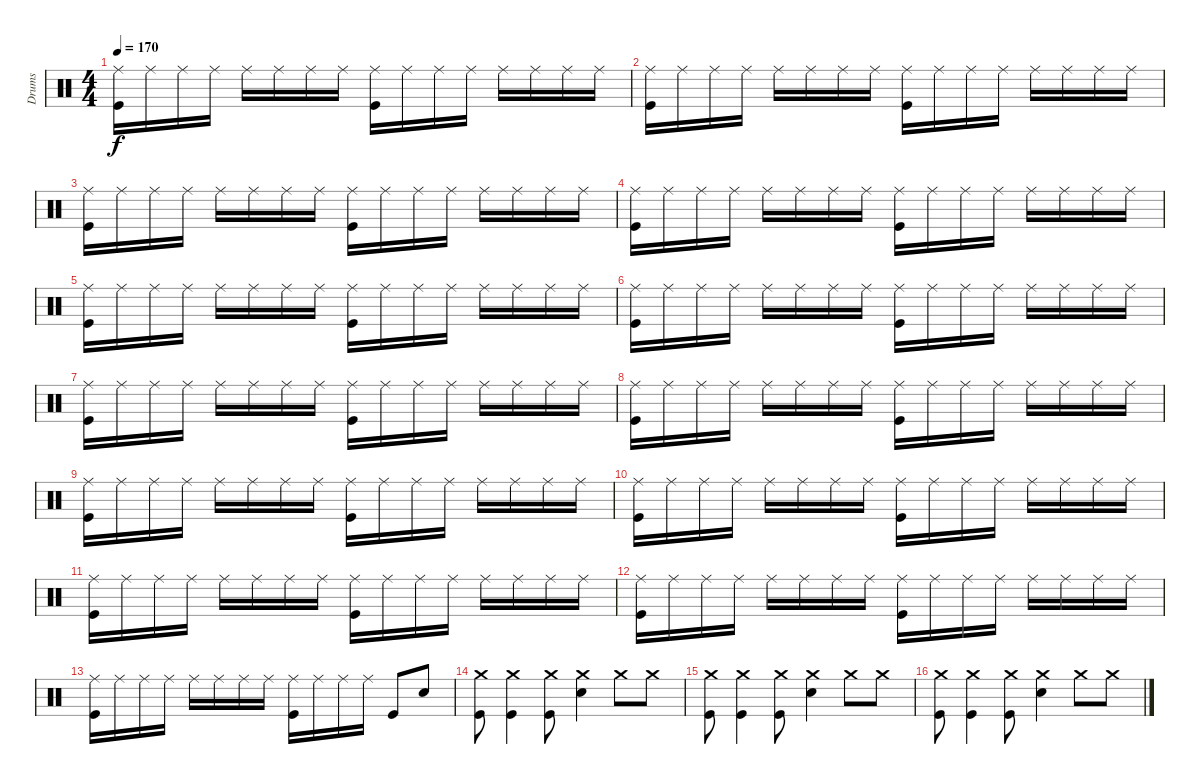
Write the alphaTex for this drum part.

\track ("Drums" "Drums") {instrument percussion}
\staff {score}
\articulation defaults
\ts (4 4)
\tempo 170
\clef neutral
\ks c
("Ride (middle)" "Kick (hit)").16{dy f} "Ride (middle)".16 "Ride (middle)".16 "Ride (middle)".16 "Ride (middle)".16 "Ride (middle)".16 "Ride (middle)".16 "Ride (middle)".16 ("Ride (middle)" "Kick (hit)").16 "Ride (middle)".16 "Ride (middle)".16 "Ride (middle)".16 "Ride (middle)".16 "Ride (middle)".16 "Ride (middle)".16 "Ride (middle)".16 |
("Ride (middle)" "Kick (hit)").16 "Ride (middle)".16 "Ride (middle)".16 "Ride (middle)".16 "Ride (middle)".16 "Ride (middle)".16 "Ride (middle)".16 "Ride (middle)".16 ("Ride (middle)" "Kick (hit)").16 "Ride (middle)".16 "Ride (middle)".16 "Ride (middle)".16 "Ride (middle)".16 "Ride (middle)".16 "Ride (middle)".16 "Ride (middle)".16 |
("Ride (middle)" "Kick (hit)").16 "Ride (middle)".16 "Ride (middle)".16 "Ride (middle)".16 "Ride (middle)".16 "Ride (middle)".16 "Ride (middle)".16 "Ride (middle)".16 ("Ride (middle)" "Kick (hit)").16 "Ride (middle)".16 "Ride (middle)".16 "Ride (middle)".16 "Ride (middle)".16 "Ride (middle)".16 "Ride (middle)".16 "Ride (middle)".16 |
("Ride (middle)" "Kick (hit)").16 "Ride (middle)".16 "Ride (middle)".16 "Ride (middle)".16 "Ride (middle)".16 "Ride (middle)".16 "Ride (middle)".16 "Ride (middle)".16 ("Ride (middle)" "Kick (hit)").16 "Ride (middle)".16 "Ride (middle)".16 "Ride (middle)".16 "Ride (middle)".16 "Ride (middle)".16 "Ride (middle)".16 "Ride (middle)".16 |
("Ride (middle)" "Kick (hit)").16 "Ride (middle)".16 "Ride (middle)".16 "Ride (middle)".16 "Ride (middle)".16 "Ride (middle)".16 "Ride (middle)".16 "Ride (middle)".16 ("Ride (middle)" "Kick (hit)").16 "Ride (middle)".16 "Ride (middle)".16 "Ride (middle)".16 "Ride (middle)".16 "Ride (middle)".16 "Ride (middle)".16 "Ride (middle)".16 |
("Ride (middle)" "Kick (hit)").16 "Ride (middle)".16 "Ride (middle)".16 "Ride (middle)".16 "Ride (middle)".16 "Ride (middle)".16 "Ride (middle)".16 "Ride (middle)".16 ("Ride (middle)" "Kick (hit)").16 "Ride (middle)".16 "Ride (middle)".16 "Ride (middle)".16 "Ride (middle)".16 "Ride (middle)".16 "Ride (middle)".16 "Ride (middle)".16 |
("Ride (middle)" "Kick (hit)").16 "Ride (middle)".16 "Ride (middle)".16 "Ride (middle)".16 "Ride (middle)".16 "Ride (middle)".16 "Ride (middle)".16 "Ride (middle)".16 ("Ride (middle)" "Kick (hit)").16 "Ride (middle)".16 "Ride (middle)".16 "Ride (middle)".16 "Ride (middle)".16 "Ride (middle)".16 "Ride (middle)".16 "Ride (middle)".16 |
("Ride (middle)" "Kick (hit)").16 "Ride (middle)".16 "Ride (middle)".16 "Ride (middle)".16 "Ride (middle)".16 "Ride (middle)".16 "Ride (middle)".16 "Ride (middle)".16 ("Ride (middle)" "Kick (hit)").16 "Ride (middle)".16 "Ride (middle)".16 "Ride (middle)".16 "Ride (middle)".16 "Ride (middle)".16 "Ride (middle)".16 "Ride (middle)".16 |
("Ride (middle)" "Kick (hit)").16 "Ride (middle)".16 "Ride (middle)".16 "Ride (middle)".16 "Ride (middle)".16 "Ride (middle)".16 "Ride (middle)".16 "Ride (middle)".16 ("Ride (middle)" "Kick (hit)").16 "Ride (middle)".16 "Ride (middle)".16 "Ride (middle)".16 "Ride (middle)".16 "Ride (middle)".16 "Ride (middle)".16 "Ride (middle)".16 |
("Ride (middle)" "Kick (hit)").16 "Ride (middle)".16 "Ride (middle)".16 "Ride (middle)".16 "Ride (middle)".16 "Ride (middle)".16 "Ride (middle)".16 "Ride (middle)".16 ("Ride (middle)" "Kick (hit)").16 "Ride (middle)".16 "Ride (middle)".16 "Ride (middle)".16 "Ride (middle)".16 "Ride (middle)".16 "Ride (middle)".16 "Ride (middle)".16 |
("Ride (middle)" "Kick (hit)").16 "Ride (middle)".16 "Ride (middle)".16 "Ride (middle)".16 "Ride (middle)".16 "Ride (middle)".16 "Ride (middle)".16 "Ride (middle)".16 ("Ride (middle)" "Kick (hit)").16 "Ride (middle)".16 "Ride (middle)".16 "Ride (middle)".16 "Ride (middle)".16 "Ride (middle)".16 "Ride (middle)".16 "Ride (middle)".16 |
("Ride (middle)" "Kick (hit)").16 "Ride (middle)".16 "Ride (middle)".16 "Ride (middle)".16 "Ride (middle)".16 "Ride (middle)".16 "Ride (middle)".16 "Ride (middle)".16 ("Ride (middle)" "Kick (hit)").16 "Ride (middle)".16 "Ride (middle)".16 "Ride (middle)".16 "Ride (middle)".16 "Ride (middle)".16 "Ride (middle)".16 "Ride (middle)".16 |
("Ride (middle)" "Kick (hit)").16 "Ride (middle)".16 "Ride (middle)".16 "Ride (middle)".16 "Ride (middle)".16 "Ride (middle)".16 "Ride (middle)".16 "Ride (middle)".16 ("Ride (middle)" "Kick (hit)").16 "Ride (middle)".16 "Ride (middle)".16 "Ride (middle)".16 "Kick (hit)".8 "Electric Snare (hit)".8 |
("Crash medium (hit)" "Kick (hit)").8 ("Crash medium (hit)" "Kick (hit)").4 ("Crash medium (hit)" "Kick (hit)").8 ("Crash medium (hit)" "Electric Snare (hit)").4 "Crash medium (hit)".8 "Crash medium (hit)".8 |
("Crash medium (hit)" "Kick (hit)").8 ("Crash medium (hit)" "Kick (hit)").4 ("Crash medium (hit)" "Kick (hit)").8 ("Crash medium (hit)" "Electric Snare (hit)").4 "Crash medium (hit)".8 "Crash medium (hit)".8 |
("Crash medium (hit)" "Kick (hit)").8 ("Crash medium (hit)" "Kick (hit)").4 ("Crash medium (hit)" "Kick (hit)").8 ("Crash medium (hit)" "Electric Snare (hit)").4 "Crash medium (hit)".8 "Crash medium (hit)".8
